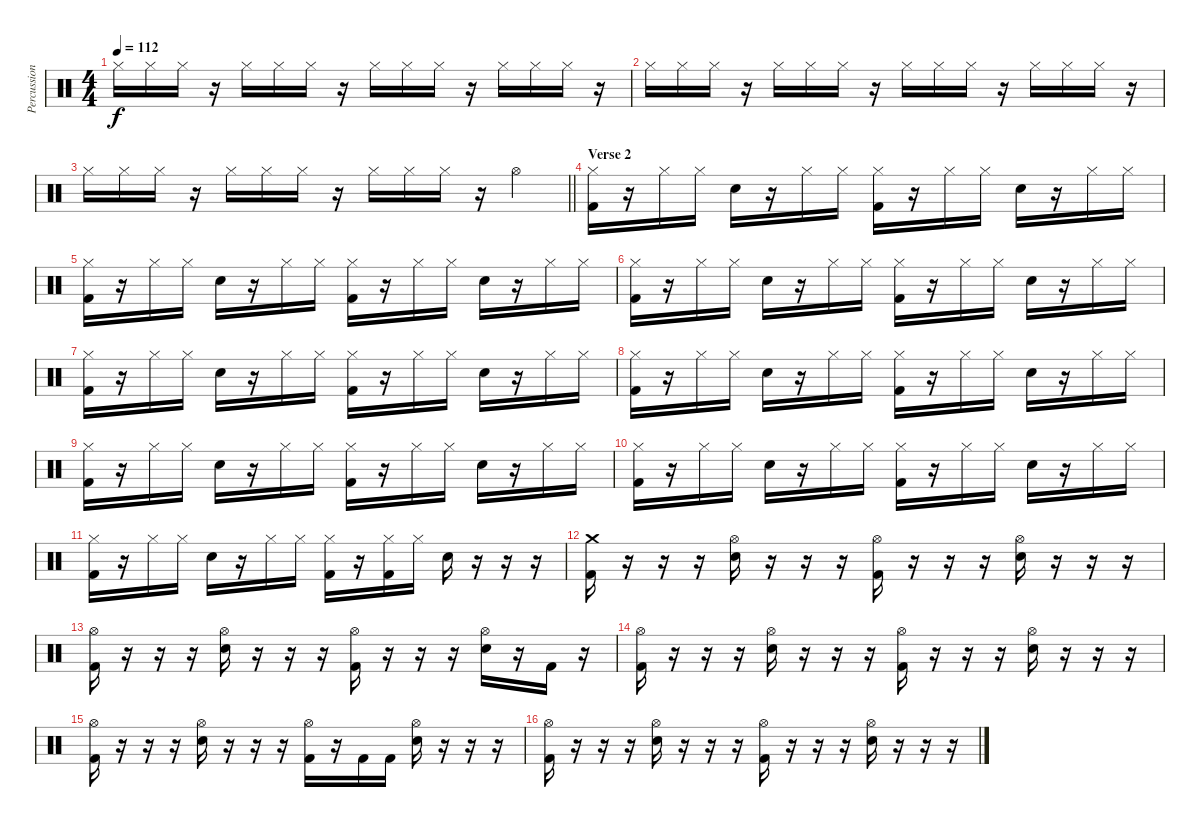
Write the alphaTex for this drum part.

\track ("Percussioni" "Percussion") {instrument percussion}
\staff {score}
\articulation defaults
\ts (4 4)
\tempo 112
\clef neutral
\ks c "Hi-Hat (closed)".16{dy f} "Hi-Hat (closed)".16 "Hi-Hat (closed)".16
r.16 "Hi-Hat (closed)".16 "Hi-Hat (closed)".16 "Hi-Hat (closed)".16 r.16 "Hi-Hat (closed)".16 "Hi-Hat (closed)".16 "Hi-Hat (closed)".16 r.16 "Hi-Hat (closed)".16 "Hi-Hat (closed)".16 "Hi-Hat (closed)".16 r.16 |
"Hi-Hat (closed)".16 "Hi-Hat (closed)".16 "Hi-Hat (closed)".16 r.16 "Hi-Hat (closed)".16 "Hi-Hat (closed)".16 "Hi-Hat (closed)".16 r.16 "Hi-Hat (closed)".16 "Hi-Hat (closed)".16 "Hi-Hat (closed)".16 r.16 "Hi-Hat (closed)".16 "Hi-Hat (closed)".16 "Hi-Hat (closed)".16 r.16 |
\barLineRight lightlight "Hi-Hat (closed)".16 "Hi-Hat (closed)".16 "Hi-Hat (closed)".16
r.16 "Hi-Hat (closed)".16 "Hi-Hat (closed)".16 "Hi-Hat (closed)".16 r.16 "Hi-Hat (closed)".16 "Hi-Hat (closed)".16 "Hi-Hat (closed)".16 r.16 "Hi-Hat (open)".4 |
\section ("" "Verse 2")
("Kick (hit) 2" "Hi-Hat (closed)").16 r.16 "Hi-Hat (closed)".16 "Hi-Hat (closed)".16 "Snare (hit) 2".16 r.16 "Hi-Hat (closed)".16 "Hi-Hat (closed)".16 ("Kick (hit) 2" "Hi-Hat (closed)").16 r.16 "Hi-Hat (closed)".16 "Hi-Hat (closed)".16 "Snare (hit) 2".16 r.16 "Hi-Hat (closed)".16 "Hi-Hat (closed)".16 |
("Kick (hit) 2" "Hi-Hat (closed)").16 r.16 "Hi-Hat (closed)".16 "Hi-Hat (closed)".16 "Snare (hit) 2".16 r.16 "Hi-Hat (closed)".16 "Hi-Hat (closed)".16 ("Kick (hit) 2" "Hi-Hat (closed)").16 r.16 "Hi-Hat (closed)".16 "Hi-Hat (closed)".16 "Snare (hit) 2".16 r.16 "Hi-Hat (closed)".16 "Hi-Hat (closed)".16 |
("Kick (hit) 2" "Hi-Hat (closed)").16 r.16 "Hi-Hat (closed)".16 "Hi-Hat (closed)".16 "Snare (hit) 2".16 r.16 "Hi-Hat (closed)".16 "Hi-Hat (closed)".16 ("Kick (hit) 2" "Hi-Hat (closed)").16 r.16 "Hi-Hat (closed)".16 "Hi-Hat (closed)".16 "Snare (hit) 2".16 r.16 "Hi-Hat (closed)".16 "Hi-Hat (closed)".16 |
("Kick (hit) 2" "Hi-Hat (closed)").16 r.16 "Hi-Hat (closed)".16 "Hi-Hat (closed)".16 "Snare (hit) 2".16 r.16 "Hi-Hat (closed)".16 "Hi-Hat (closed)".16 ("Kick (hit) 2" "Hi-Hat (closed)").16 r.16 "Hi-Hat (closed)".16 "Hi-Hat (closed)".16 "Snare (hit) 2".16 r.16 "Hi-Hat (closed)".16 "Hi-Hat (closed)".16 |
("Kick (hit) 2" "Hi-Hat (closed)").16 r.16 "Hi-Hat (closed)".16 "Hi-Hat (closed)".16 "Snare (hit) 2".16 r.16 "Hi-Hat (closed)".16 "Hi-Hat (closed)".16 ("Kick (hit) 2" "Hi-Hat (closed)").16 r.16 "Hi-Hat (closed)".16 "Hi-Hat (closed)".16 "Snare (hit) 2".16 r.16 "Hi-Hat (closed)".16 "Hi-Hat (closed)".16 |
("Kick (hit) 2" "Hi-Hat (closed)").16 r.16 "Hi-Hat (closed)".16 "Hi-Hat (closed)".16 "Snare (hit) 2".16 r.16 "Hi-Hat (closed)".16 "Hi-Hat (closed)".16 ("Kick (hit) 2" "Hi-Hat (closed)").16 r.16 "Hi-Hat (closed)".16 "Hi-Hat (closed)".16 "Snare (hit) 2".16 r.16 "Hi-Hat (closed)".16 "Hi-Hat (closed)".16 |
("Kick (hit) 2" "Hi-Hat (closed)").16 r.16 "Hi-Hat (closed)".16 "Hi-Hat (closed)".16 "Snare (hit) 2".16 r.16 "Hi-Hat (closed)".16 "Hi-Hat (closed)".16 ("Kick (hit) 2" "Hi-Hat (closed)").16 r.16 "Hi-Hat (closed)".16 "Hi-Hat (closed)".16 "Snare (hit) 2".16 r.16 "Hi-Hat (closed)".16 "Hi-Hat (closed)".16 |
("Kick (hit) 2" "Hi-Hat (closed)").16 r.16 "Hi-Hat (closed)".16 "Hi-Hat (closed)".16 "Snare (hit) 2".16 r.16 "Hi-Hat (closed)".16 "Hi-Hat (closed)".16 ("Kick (hit) 2" "Hi-Hat (closed)").16 r.16 ("Kick (hit) 2" "Hi-Hat (closed)").16 "Hi-Hat (closed)".16 "Snare (hit) 2".16 r.16 r.16 r.16 |
("Kick (hit) 2" "Crash medium (hit)").16 r.16 r.16 r.16 ("Snare (hit) 2" "Hi-Hat (open)").16 r.16 r.16 r.16 ("Kick (hit) 2" "Hi-Hat (open)").16 r.16 r.16 r.16 ("Snare (hit) 2" "Hi-Hat (open)").16 r.16 r.16 r.16 |
("Kick (hit) 2" "Hi-Hat (open)").16 r.16 r.16 r.16 ("Snare (hit) 2" "Hi-Hat (open)").16 r.16 r.16 r.16 ("Kick (hit) 2" "Hi-Hat (open)").16 r.16 r.16 r.16 ("Snare (hit) 2" "Hi-Hat (open)").16 r.16 "Kick (hit) 2".16 r.16 |
("Kick (hit) 2" "Hi-Hat (open)").16 r.16 r.16 r.16 ("Snare (hit) 2" "Hi-Hat (open)").16 r.16 r.16 r.16 ("Kick (hit) 2" "Hi-Hat (open)").16 r.16 r.16 r.16 ("Snare (hit) 2" "Hi-Hat (open)").16 r.16 r.16 r.16 |
("Kick (hit) 2" "Hi-Hat (open)").16 r.16 r.16 r.16 ("Snare (hit) 2" "Hi-Hat (open)").16 r.16 r.16 r.16 ("Kick (hit) 2" "Hi-Hat (open)").16 r.16 "Kick (hit) 2".16 "Kick (hit) 2".16 ("Snare (hit) 2" "Hi-Hat (open)").16 r.16 r.16 r.16 |
("Kick (hit) 2" "Hi-Hat (open)").16 r.16 r.16 r.16 ("Snare (hit) 2" "Hi-Hat (open)").16 r.16 r.16 r.16 ("Kick (hit) 2" "Hi-Hat (open)").16 r.16 r.16 r.16 ("Snare (hit) 2" "Hi-Hat (open)").16 r.16 r.16 r.16
